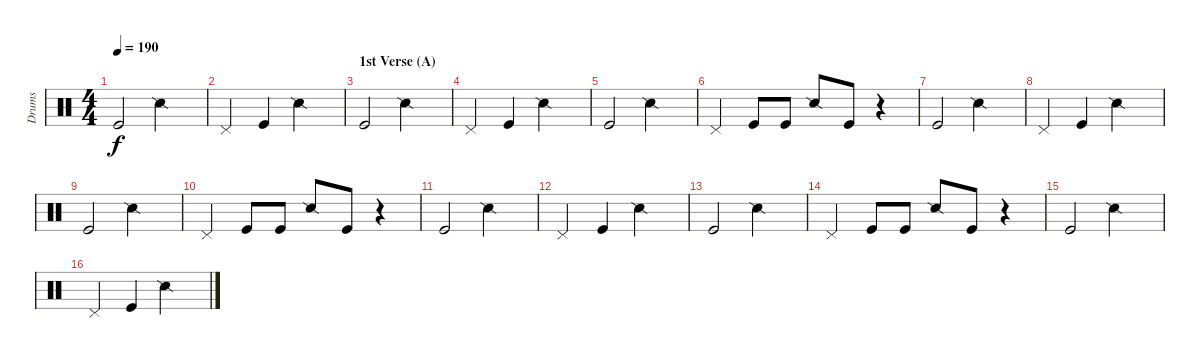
\track ("Drums" "Drums") {instrument percussion}
\staff {score}
\articulation defaults
\ts (4 4)
\tempo 190
\clef neutral
\ks c "Kick (hit)".2{dy f} "Snare (side stick) 2".2
|
"Pedal Hi-Hat (hit)".4 "Kick (hit)".4 "Snare (side stick) 2".2 |
\section ("" "1st Verse (A)")
"Kick (hit)".2 "Snare (side stick) 2".2 |
"Pedal Hi-Hat (hit)".4 "Kick (hit)".4 "Snare (side stick) 2".2 |
"Kick (hit)".2 "Snare (side stick) 2".2 |
"Pedal Hi-Hat (hit)".4 "Kick (hit)".8 "Kick (hit)".8 "Snare (side stick) 2".8 "Kick (hit)".8 r.4 |
"Kick (hit)".2 "Snare (side stick) 2".2 |
"Pedal Hi-Hat (hit)".4 "Kick (hit)".4 "Snare (side stick) 2".2 |
"Kick (hit)".2 "Snare (side stick) 2".2 |
"Pedal Hi-Hat (hit)".4 "Kick (hit)".8 "Kick (hit)".8 "Snare (side stick) 2".8 "Kick (hit)".8 r.4 |
"Kick (hit)".2 "Snare (side stick) 2".2 |
"Pedal Hi-Hat (hit)".4 "Kick (hit)".4 "Snare (side stick) 2".2 |
"Kick (hit)".2 "Snare (side stick) 2".2 |
"Pedal Hi-Hat (hit)".4 "Kick (hit)".8 "Kick (hit)".8 "Snare (side stick) 2".8 "Kick (hit)".8 r.4 |
"Kick (hit)".2 "Snare (side stick) 2".2 |
"Pedal Hi-Hat (hit)".4 "Kick (hit)".4 "Snare (side stick) 2".2
